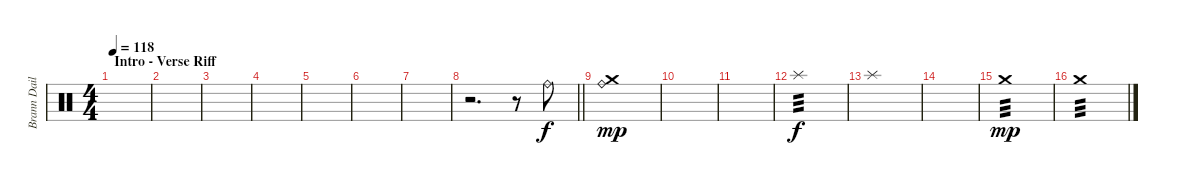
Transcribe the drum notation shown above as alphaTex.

\track ("Brann Dailor - Drums" "Brann Dail") {instrument percussion}
\staff {score}
\articulation defaults
\ts (4 4)
\section ("" "Intro - Verse Riff")
\tempo 118
\clef neutral
\ks c
|
|
|
|
|
|
|
\barLineRight lightlight
r.2{d} r.8 "Ride (bell)".8 |
("Ride (bell)" "Crash medium (hit)").1{dy mp} |
|
|
"Splash (hit)".1{tp 3 dy f volume 16} |
"Splash (hit)".1 |
|
"Crash medium (hit)".1{tp 3 dy mp volume 16} |
"Crash medium (hit)".1{tp 3}
